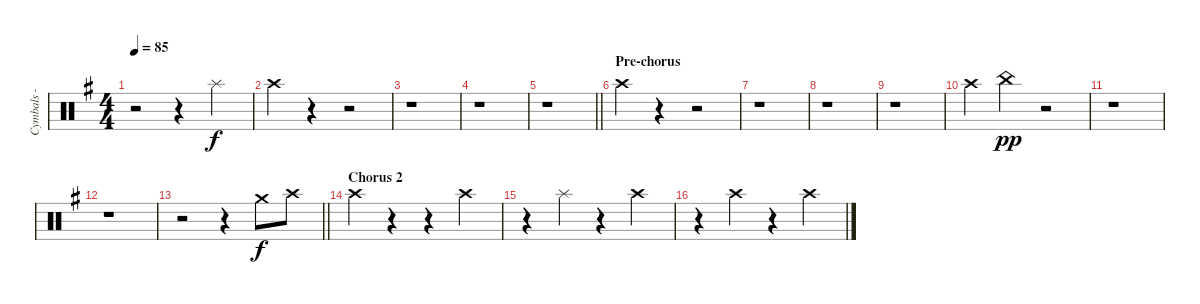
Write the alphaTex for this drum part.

\track ("Cymbals - crash" "Cymbals - ") {instrument percussion}
\staff {score}
\articulation defaults
\ts (4 4)
\tempo 85
\clef neutral
\ks g
r.2{dy f} r.4 "Splash (hit)".4 |
"Crash high (hit)".4 r.4 r.2 |
r.1 |
r.1 |
\barLineRight lightlight
r.1 |
\section ("" "Pre-chorus")
"Crash high (hit)".4 r.4 r.2 |
r.1 |
r.1 |
r.1 |
"Crash high (hit)".4 "China (hit)".4{dy pp} r.2 |
r.1 |
r.1 |
\barLineRight lightlight
r.2 r.4 "Crash medium (hit)".8{dy f} "Crash high (hit)".8 |
\section ("" "Chorus 2")
"Crash high (hit)".4 r.4 r.4 "Crash high (hit)".4 |
r.4 "Splash (hit)".4 r.4 "Crash high (hit)".4 |
r.4 "Crash high (hit)".4 r.4 "Crash high (hit)".4
